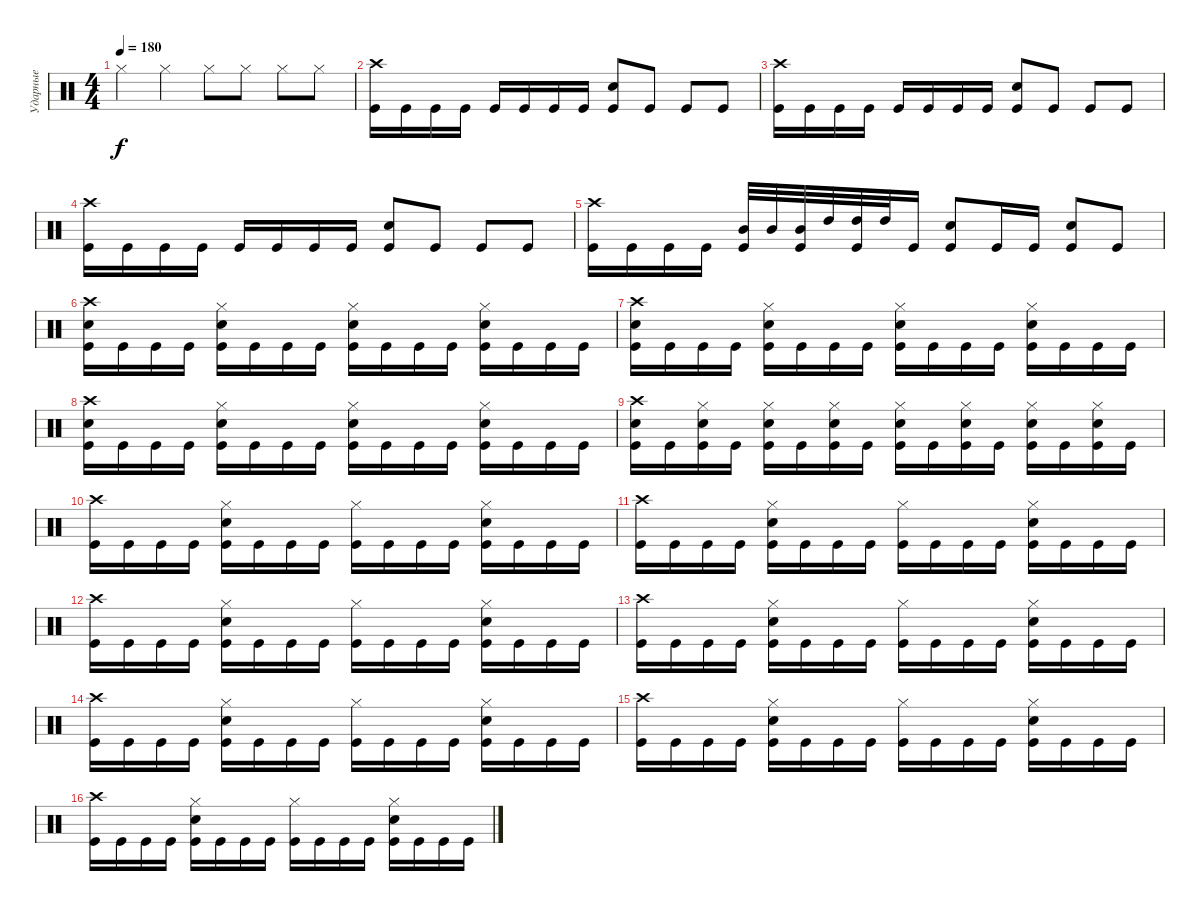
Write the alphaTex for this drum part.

\track ("Ударные" "Ударные") {instrument percussion}
\staff {score}
\articulation defaults
\ts (4 4)
\tempo 180
\clef neutral
\ks c "Hi-Hat (closed)".4{dy f} "Hi-Hat (closed)".4 "Hi-Hat (closed)".8 "Hi-Hat (closed)".8 "Hi-Hat (closed)".8 "Hi-Hat (closed)".8
|
("Crash high (hit)" "Kick (hit)").16 "Kick (hit)".16 "Kick (hit)".16 "Kick (hit)".16 "Kick (hit)".16 "Kick (hit)".16 "Kick (hit)".16 "Kick (hit)".16 ("Electric Snare (hit)" "Kick (hit)").8 "Kick (hit)".8 "Kick (hit)".8 "Kick (hit)".8 |
("Crash high (hit)" "Kick (hit)").16 "Kick (hit)".16 "Kick (hit)".16 "Kick (hit)".16 "Kick (hit)".16 "Kick (hit)".16 "Kick (hit)".16 "Kick (hit)".16 ("Electric Snare (hit)" "Kick (hit)").8 "Kick (hit)".8 "Kick (hit)".8 "Kick (hit)".8 |
("Crash high (hit)" "Kick (hit)").16 "Kick (hit)".16 "Kick (hit)".16 "Kick (hit)".16 "Kick (hit)".16 "Kick (hit)".16 "Kick (hit)".16 "Kick (hit)".16 ("Electric Snare (hit)" "Kick (hit)").8 "Kick (hit)".8 "Kick (hit)".8 "Kick (hit)".8 |
("Crash high (hit)" "Kick (hit)").16 "Kick (hit)".16 "Kick (hit)".16 "Kick (hit)".16 ("Mid Tom (hit)" "Kick (hit)").32 "Mid Tom (hit)".32 ("Mid Tom (hit)" "Kick (hit)").32 "High Tom (hit)".32 ("High Tom (hit)" "Kick (hit)").32 "High Tom (hit)".32 "Kick (hit)".16 ("Electric Snare (hit)" "Kick (hit)").8 "Kick (hit)".16 "Kick (hit)".16 ("Electric Snare (hit)" "Kick (hit)").8 "Kick (hit)".8 |
("Crash high (hit)" "Electric Snare (hit)" "Kick (hit)").16 "Kick (hit)".16 "Kick (hit)".16 "Kick (hit)".16 ("Hi-Hat (closed)" "Electric Snare (hit)" "Kick (hit)").16 "Kick (hit)".16 "Kick (hit)".16 "Kick (hit)".16 ("Hi-Hat (closed)" "Electric Snare (hit)" "Kick (hit)").16 "Kick (hit)".16 "Kick (hit)".16 "Kick (hit)".16 ("Hi-Hat (closed)" "Electric Snare (hit)" "Kick (hit)").16 "Kick (hit)".16 "Kick (hit)".16 "Kick (hit)".16 |
("Crash high (hit)" "Electric Snare (hit)" "Kick (hit)").16 "Kick (hit)".16 "Kick (hit)".16 "Kick (hit)".16 ("Hi-Hat (closed)" "Electric Snare (hit)" "Kick (hit)").16 "Kick (hit)".16 "Kick (hit)".16 "Kick (hit)".16 ("Hi-Hat (closed)" "Electric Snare (hit)" "Kick (hit)").16 "Kick (hit)".16 "Kick (hit)".16 "Kick (hit)".16 ("Hi-Hat (closed)" "Electric Snare (hit)" "Kick (hit)").16 "Kick (hit)".16 "Kick (hit)".16 "Kick (hit)".16 |
("Crash high (hit)" "Electric Snare (hit)" "Kick (hit)").16 "Kick (hit)".16 "Kick (hit)".16 "Kick (hit)".16 ("Hi-Hat (closed)" "Electric Snare (hit)" "Kick (hit)").16 "Kick (hit)".16 "Kick (hit)".16 "Kick (hit)".16 ("Hi-Hat (closed)" "Electric Snare (hit)" "Kick (hit)").16 "Kick (hit)".16 "Kick (hit)".16 "Kick (hit)".16 ("Hi-Hat (closed)" "Electric Snare (hit)" "Kick (hit)").16 "Kick (hit)".16 "Kick (hit)".16 "Kick (hit)".16 |
("Crash high (hit)" "Electric Snare (hit)" "Kick (hit)").16 "Kick (hit)".16 ("Hi-Hat (closed)" "Electric Snare (hit)" "Kick (hit)").16 "Kick (hit)".16 ("Hi-Hat (closed)" "Electric Snare (hit)" "Kick (hit)").16 "Kick (hit)".16 ("Hi-Hat (closed)" "Electric Snare (hit)" "Kick (hit)").16 "Kick (hit)".16 ("Hi-Hat (closed)" "Electric Snare (hit)" "Kick (hit)").16 "Kick (hit)".16 ("Hi-Hat (closed)" "Electric Snare (hit)" "Kick (hit)").16 "Kick (hit)".16 ("Hi-Hat (closed)" "Electric Snare (hit)" "Kick (hit)").16 "Kick (hit)".16 ("Hi-Hat (closed)" "Electric Snare (hit)" "Kick (hit)").16 "Kick (hit)".16 |
("Crash high (hit)" "Kick (hit)").16 "Kick (hit)".16 "Kick (hit)".16 "Kick (hit)".16 ("Hi-Hat (closed)" "Electric Snare (hit)" "Kick (hit)").16 "Kick (hit)".16 "Kick (hit)".16 "Kick (hit)".16 ("Hi-Hat (closed)" "Kick (hit)").16 "Kick (hit)".16 "Kick (hit)".16 "Kick (hit)".16 ("Hi-Hat (closed)" "Electric Snare (hit)" "Kick (hit)").16 "Kick (hit)".16 "Kick (hit)".16 "Kick (hit)".16 |
("Crash high (hit)" "Kick (hit)").16 "Kick (hit)".16 "Kick (hit)".16 "Kick (hit)".16 ("Hi-Hat (closed)" "Electric Snare (hit)" "Kick (hit)").16 "Kick (hit)".16 "Kick (hit)".16 "Kick (hit)".16 ("Hi-Hat (closed)" "Kick (hit)").16 "Kick (hit)".16 "Kick (hit)".16 "Kick (hit)".16 ("Hi-Hat (closed)" "Electric Snare (hit)" "Kick (hit)").16 "Kick (hit)".16 "Kick (hit)".16 "Kick (hit)".16 |
("Crash high (hit)" "Kick (hit)").16 "Kick (hit)".16 "Kick (hit)".16 "Kick (hit)".16 ("Hi-Hat (closed)" "Electric Snare (hit)" "Kick (hit)").16 "Kick (hit)".16 "Kick (hit)".16 "Kick (hit)".16 ("Hi-Hat (closed)" "Kick (hit)").16 "Kick (hit)".16 "Kick (hit)".16 "Kick (hit)".16 ("Hi-Hat (closed)" "Electric Snare (hit)" "Kick (hit)").16 "Kick (hit)".16 "Kick (hit)".16 "Kick (hit)".16 |
("Crash high (hit)" "Kick (hit)").16 "Kick (hit)".16 "Kick (hit)".16 "Kick (hit)".16 ("Hi-Hat (closed)" "Electric Snare (hit)" "Kick (hit)").16 "Kick (hit)".16 "Kick (hit)".16 "Kick (hit)".16 ("Hi-Hat (closed)" "Kick (hit)").16 "Kick (hit)".16 "Kick (hit)".16 "Kick (hit)".16 ("Hi-Hat (closed)" "Electric Snare (hit)" "Kick (hit)").16 "Kick (hit)".16 "Kick (hit)".16 "Kick (hit)".16 |
("Crash high (hit)" "Kick (hit)").16 "Kick (hit)".16 "Kick (hit)".16 "Kick (hit)".16 ("Hi-Hat (closed)" "Electric Snare (hit)" "Kick (hit)").16 "Kick (hit)".16 "Kick (hit)".16 "Kick (hit)".16 ("Hi-Hat (closed)" "Kick (hit)").16 "Kick (hit)".16 "Kick (hit)".16 "Kick (hit)".16 ("Hi-Hat (closed)" "Electric Snare (hit)" "Kick (hit)").16 "Kick (hit)".16 "Kick (hit)".16 "Kick (hit)".16 |
("Crash high (hit)" "Kick (hit)").16 "Kick (hit)".16 "Kick (hit)".16 "Kick (hit)".16 ("Hi-Hat (closed)" "Electric Snare (hit)" "Kick (hit)").16 "Kick (hit)".16 "Kick (hit)".16 "Kick (hit)".16 ("Hi-Hat (closed)" "Kick (hit)").16 "Kick (hit)".16 "Kick (hit)".16 "Kick (hit)".16 ("Hi-Hat (closed)" "Electric Snare (hit)" "Kick (hit)").16 "Kick (hit)".16 "Kick (hit)".16 "Kick (hit)".16 |
("Crash high (hit)" "Kick (hit)").16 "Kick (hit)".16 "Kick (hit)".16 "Kick (hit)".16 ("Hi-Hat (closed)" "Electric Snare (hit)" "Kick (hit)").16 "Kick (hit)".16 "Kick (hit)".16 "Kick (hit)".16 ("Hi-Hat (closed)" "Kick (hit)").16 "Kick (hit)".16 "Kick (hit)".16 "Kick (hit)".16 ("Hi-Hat (closed)" "Electric Snare (hit)" "Kick (hit)").16 "Kick (hit)".16 "Kick (hit)".16 "Kick (hit)".16
